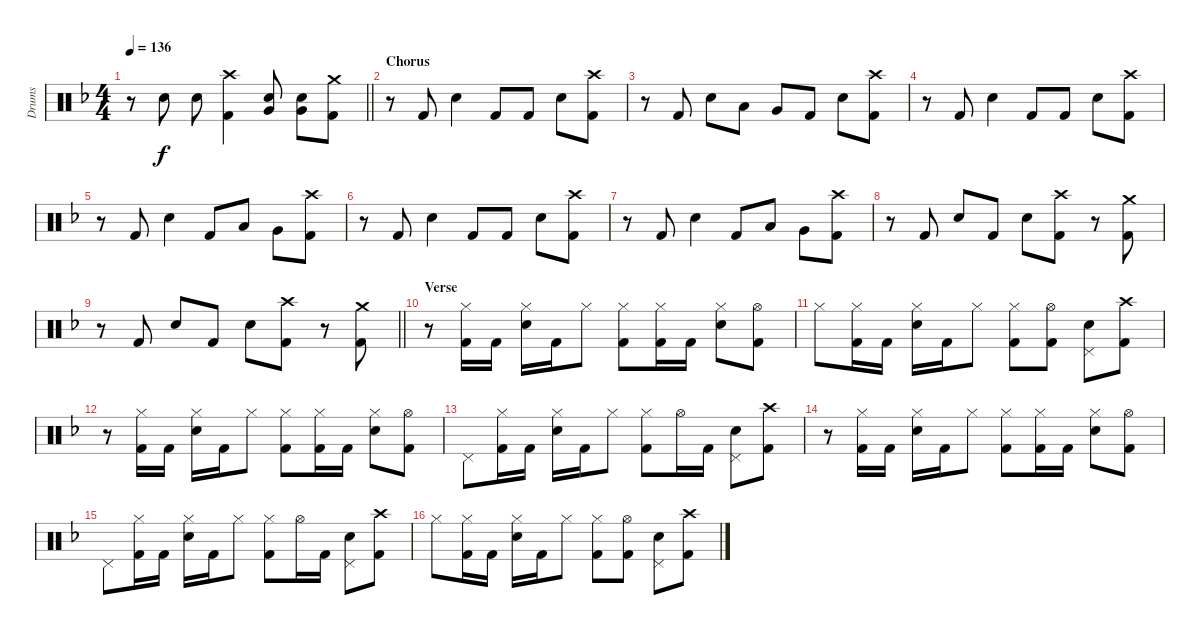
\track ("Drums" "Drums") {instrument percussion}
\staff {score}
\articulation defaults
\ts (4 4)
\tempo 136
\clef neutral
\barLineRight lightlight
\ks dminor
r.8{dy f} "Snare (hit) 2".8 "Snare (hit) 2".8 ("Crash high (hit)" "Kick (hit) 2").4 ("Very Low Tom (hit)" "Snare (hit) 2").8 ("Very Low Tom (hit)" "Snare (hit) 2").8 ("Crash medium (hit)" "Kick (hit) 2").8 |
\section ("" "Chorus")
r.8 "Kick (hit) 2".8 "Snare (hit) 2".4 "Kick (hit) 2".8 "Kick (hit) 2".8 "Snare (hit) 2".8 ("Crash high (hit)" "Kick (hit) 2").8 |
r.8 "Kick (hit) 2".8 "Snare (hit) 2".8 "Low Tom (hit)".8 "Very Low Tom (hit)".8 "Kick (hit) 2".8 "Snare (hit) 2".8 ("Crash high (hit)" "Kick (hit) 2").8 |
r.8 "Kick (hit) 2".8 "Snare (hit) 2".4 "Kick (hit) 2".8 "Kick (hit) 2".8 "Snare (hit) 2".8 ("Crash high (hit)" "Kick (hit) 2").8 |
r.8 "Kick (hit) 2".8 "Snare (hit) 2".4 "Kick (hit) 2".8 "Low Tom (hit)".8 "Very Low Tom (hit)".8 ("Crash high (hit)" "Kick (hit) 2").8 |
r.8 "Kick (hit) 2".8 "Snare (hit) 2".4 "Kick (hit) 2".8 "Kick (hit) 2".8 "Snare (hit) 2".8 ("Crash high (hit)" "Kick (hit) 2").8 |
r.8 "Kick (hit) 2".8 "Snare (hit) 2".4 "Kick (hit) 2".8 "Low Tom (hit)".8 "Very Low Tom (hit)".8 ("Crash high (hit)" "Kick (hit) 2").8 |
r.8 "Kick (hit) 2".8 "Snare (hit) 2".8 "Kick (hit) 2".8 "Snare (hit) 2".8 ("Crash high (hit)" "Kick (hit) 2").8 r.8 ("Crash medium (hit)" "Kick (hit) 2").8 |
\barLineRight lightlight
r.8 "Kick (hit) 2".8 "Snare (hit) 2".8 "Kick (hit) 2".8 "Snare (hit) 2".8 ("Crash high (hit)" "Kick (hit) 2").8 r.8 ("Crash medium (hit)" "Kick (hit) 2").8 |
\section ("" "Verse")
r.8 ("Hi-Hat (closed)" "Kick (hit) 2").16 "Kick (hit) 2".16 ("Hi-Hat (closed)" "Snare (hit) 2").16 "Kick (hit) 2".16 "Hi-Hat (closed)".8 ("Hi-Hat (closed)" "Kick (hit) 2").8 ("Hi-Hat (closed)" "Kick (hit) 2").16 "Kick (hit) 2".16 ("Hi-Hat (closed)" "Snare (hit) 2").8 ("Hi-Hat (open)" "Kick (hit) 2").8 |
"Hi-Hat (closed)".8 ("Hi-Hat (closed)" "Kick (hit) 2").16 "Kick (hit) 2".16 ("Hi-Hat (closed)" "Snare (hit) 2").16 "Kick (hit) 2".16 "Hi-Hat (closed)".8 ("Hi-Hat (closed)" "Kick (hit) 2").8 ("Hi-Hat (open)" "Kick (hit) 2").8 ("Pedal Hi-Hat (hit)" "Snare (hit) 2").8 ("Crash high (hit)" "Kick (hit) 2").8 |
r.8 ("Hi-Hat (closed)" "Kick (hit) 2").16 "Kick (hit) 2".16 ("Hi-Hat (closed)" "Snare (hit) 2").16 "Kick (hit) 2".16 "Hi-Hat (closed)".8 ("Hi-Hat (closed)" "Kick (hit) 2").8 ("Hi-Hat (closed)" "Kick (hit) 2").16 "Kick (hit) 2".16 ("Hi-Hat (closed)" "Snare (hit) 2").8 ("Hi-Hat (open)" "Kick (hit) 2").8 |
"Pedal Hi-Hat (hit)".8 ("Hi-Hat (closed)" "Kick (hit) 2").16 "Kick (hit) 2".16 ("Hi-Hat (closed)" "Snare (hit) 2").16 "Kick (hit) 2".16 "Hi-Hat (closed)".8 ("Hi-Hat (closed)" "Kick (hit) 2").8 "Hi-Hat (open)".16 "Kick (hit) 2".16 ("Pedal Hi-Hat (hit)" "Snare (hit) 2").8 ("Crash high (hit)" "Kick (hit) 2").8 |
r.8 ("Hi-Hat (closed)" "Kick (hit) 2").16 "Kick (hit) 2".16 ("Hi-Hat (closed)" "Snare (hit) 2").16 "Kick (hit) 2".16 "Hi-Hat (closed)".8 ("Hi-Hat (closed)" "Kick (hit) 2").8 ("Hi-Hat (closed)" "Kick (hit) 2").16 "Kick (hit) 2".16 ("Hi-Hat (closed)" "Snare (hit) 2").8 ("Hi-Hat (open)" "Kick (hit) 2").8 |
"Pedal Hi-Hat (hit)".8 ("Hi-Hat (closed)" "Kick (hit) 2").16 "Kick (hit) 2".16 ("Hi-Hat (closed)" "Snare (hit) 2").16 "Kick (hit) 2".16 "Hi-Hat (closed)".8 ("Hi-Hat (closed)" "Kick (hit) 2").8 "Hi-Hat (open)".16 "Kick (hit) 2".16 ("Pedal Hi-Hat (hit)" "Snare (hit) 2").8 ("Crash high (hit)" "Kick (hit) 2").8 |
"Hi-Hat (closed)".8 ("Hi-Hat (closed)" "Kick (hit) 2").16 "Kick (hit) 2".16 ("Hi-Hat (closed)" "Snare (hit) 2").16 "Kick (hit) 2".16 "Hi-Hat (closed)".8 ("Hi-Hat (closed)" "Kick (hit) 2").8 ("Hi-Hat (open)" "Kick (hit) 2").8 ("Pedal Hi-Hat (hit)" "Snare (hit) 2").8 ("Crash high (hit)" "Kick (hit) 2").8
